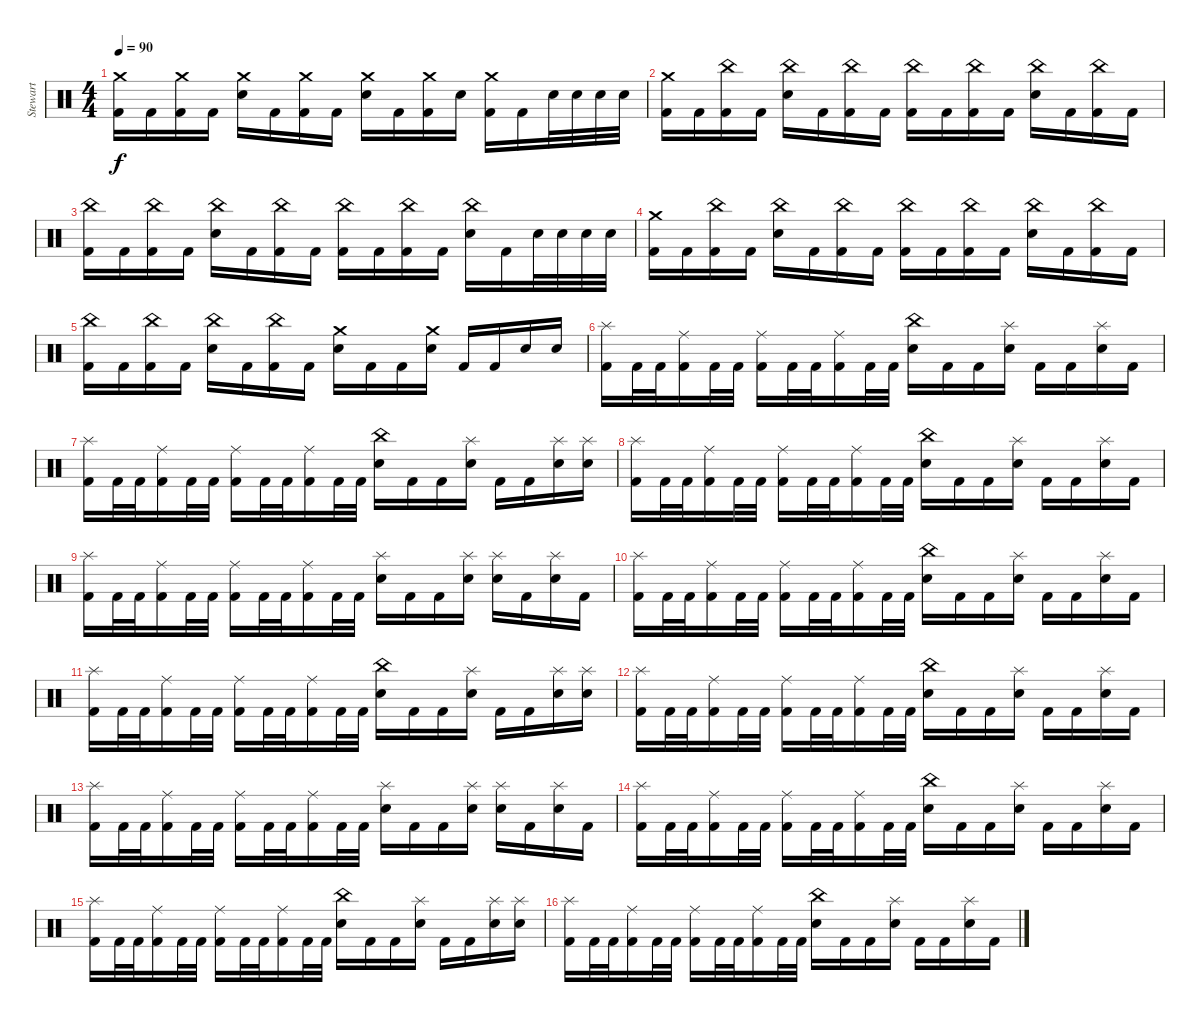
\track ("Stewart" "Stewart") {instrument percussion}
\staff {score}
\articulation defaults
\ts (4 4)
\tempo 90
\clef neutral
\ks c
("Crash medium (hit)" "Kick (hit) 2").16{dy f} "Kick (hit) 2".16 ("Crash medium (hit)" "Kick (hit) 2").16 "Kick (hit) 2".16 ("Crash medium (hit)" "Electric Snare (hit)").16 "Kick (hit) 2".16 ("Crash medium (hit)" "Kick (hit) 2").16 "Kick (hit) 2".16 ("Crash medium (hit)" "Electric Snare (hit)").16 "Kick (hit) 2".16 ("Crash medium (hit)" "Kick (hit) 2").16 "Electric Snare (hit)".16 ("Crash medium (hit)" "Kick (hit) 2").16 "Kick (hit) 2".16 "Electric Snare (hit)".32 "Electric Snare (hit)".32 "Electric Snare (hit)".32 "Electric Snare (hit)".32 |
("Crash medium (hit)" "Kick (hit) 2").16 "Kick (hit) 2".16 ("China (hit)" "Kick (hit) 2").16 "Kick (hit) 2".16 ("China (hit)" "Electric Snare (hit)").16 "Kick (hit) 2".16 ("China (hit)" "Kick (hit) 2").16 "Kick (hit) 2".16 ("China (hit)" "Kick (hit) 2").16 "Kick (hit) 2".16 ("China (hit)" "Kick (hit) 2").16 "Kick (hit) 2".16 ("China (hit)" "Electric Snare (hit)").16 "Kick (hit) 2".16 ("China (hit)" "Kick (hit) 2").16 "Kick (hit) 2".16 |
("China (hit)" "Kick (hit) 2").16 "Kick (hit) 2".16 ("China (hit)" "Kick (hit) 2").16 "Kick (hit) 2".16 ("China (hit)" "Electric Snare (hit)").16 "Kick (hit) 2".16 ("China (hit)" "Kick (hit) 2").16 "Kick (hit) 2".16 ("China (hit)" "Kick (hit) 2").16 "Kick (hit) 2".16 ("China (hit)" "Kick (hit) 2").16 "Kick (hit) 2".16 ("China (hit)" "Electric Snare (hit)").16 "Kick (hit) 2".16 "Electric Snare (hit)".32 "Electric Snare (hit)".32 "Electric Snare (hit)".32 "Electric Snare (hit)".32 |
("Crash medium (hit)" "Kick (hit) 2").16 "Kick (hit) 2".16 ("China (hit)" "Kick (hit) 2").16 "Kick (hit) 2".16 ("China (hit)" "Electric Snare (hit)").16 "Kick (hit) 2".16 ("China (hit)" "Kick (hit) 2").16 "Kick (hit) 2".16 ("China (hit)" "Kick (hit) 2").16 "Kick (hit) 2".16 ("China (hit)" "Kick (hit) 2").16 "Kick (hit) 2".16 ("China (hit)" "Electric Snare (hit)").16 "Kick (hit) 2".16 ("China (hit)" "Kick (hit) 2").16 "Kick (hit) 2".16 |
("China (hit)" "Kick (hit) 2").16 "Kick (hit) 2".16 ("China (hit)" "Kick (hit) 2").16 "Kick (hit) 2".16 ("China (hit)" "Electric Snare (hit)").16 "Kick (hit) 2".16 ("China (hit)" "Kick (hit) 2").16 "Kick (hit) 2".16 ("Crash medium (hit)" "Electric Snare (hit)").16 "Kick (hit) 2".16 "Kick (hit) 2".16 ("Crash medium (hit)" "Electric Snare (hit)").16 "Kick (hit) 2".16 "Kick (hit) 2".16 "Electric Snare (hit)".16 "Electric Snare (hit)".16 |
("Splash (hit)" "Kick (hit) 2").16 "Kick (hit) 2".32 "Kick (hit) 2".32 ("Ride (middle)" "Kick (hit) 2").16 "Kick (hit) 2".32 "Kick (hit) 2".32 ("Ride (middle)" "Kick (hit) 2").16 "Kick (hit) 2".32 "Kick (hit) 2".32 ("Ride (middle)" "Kick (hit) 2").16 "Kick (hit) 2".32 "Kick (hit) 2".32 ("China (hit)" "Electric Snare (hit)").16 "Kick (hit) 2".16 "Kick (hit) 2".16 ("Splash (hit)" "Electric Snare (hit)").16 "Kick (hit) 2".16 "Kick (hit) 2".16 ("Splash (hit)" "Electric Snare (hit)").16 "Kick (hit) 2".16 |
("Splash (hit)" "Kick (hit) 2").16 "Kick (hit) 2".32 "Kick (hit) 2".32 ("Ride (middle)" "Kick (hit) 2").16 "Kick (hit) 2".32 "Kick (hit) 2".32 ("Ride (middle)" "Kick (hit) 2").16 "Kick (hit) 2".32 "Kick (hit) 2".32 ("Ride (middle)" "Kick (hit) 2").16 "Kick (hit) 2".32 "Kick (hit) 2".32 ("China (hit)" "Electric Snare (hit)").16 "Kick (hit) 2".16 "Kick (hit) 2".16 ("Splash (hit)" "Electric Snare (hit)").16 "Kick (hit) 2".16 "Kick (hit) 2".16 ("Splash (hit)" "Electric Snare (hit)").16 ("Splash (hit)" "Electric Snare (hit)").16 |
("Splash (hit)" "Kick (hit) 2").16 "Kick (hit) 2".32 "Kick (hit) 2".32 ("Ride (middle)" "Kick (hit) 2").16 "Kick (hit) 2".32 "Kick (hit) 2".32 ("Ride (middle)" "Kick (hit) 2").16 "Kick (hit) 2".32 "Kick (hit) 2".32 ("Ride (middle)" "Kick (hit) 2").16 "Kick (hit) 2".32 "Kick (hit) 2".32 ("China (hit)" "Electric Snare (hit)").16 "Kick (hit) 2".16 "Kick (hit) 2".16 ("Splash (hit)" "Electric Snare (hit)").16 "Kick (hit) 2".16 "Kick (hit) 2".16 ("Splash (hit)" "Electric Snare (hit)").16 "Kick (hit) 2".16 |
("Splash (hit)" "Kick (hit) 2").16 "Kick (hit) 2".32 "Kick (hit) 2".32 ("Ride (middle)" "Kick (hit) 2").16 "Kick (hit) 2".32 "Kick (hit) 2".32 ("Ride (middle)" "Kick (hit) 2").16 "Kick (hit) 2".32 "Kick (hit) 2".32 ("Ride (middle)" "Kick (hit) 2").16 "Kick (hit) 2".32 "Kick (hit) 2".32 ("Splash (hit)" "Electric Snare (hit)").16 "Kick (hit) 2".16 "Kick (hit) 2".16 ("Splash (hit)" "Electric Snare (hit)").16 ("Splash (hit)" "Electric Snare (hit)").16 "Kick (hit) 2".16 ("Splash (hit)" "Electric Snare (hit)").16 "Kick (hit) 2".16 |
("Splash (hit)" "Kick (hit) 2").16 "Kick (hit) 2".32 "Kick (hit) 2".32 ("Ride (middle)" "Kick (hit) 2").16 "Kick (hit) 2".32 "Kick (hit) 2".32 ("Ride (middle)" "Kick (hit) 2").16 "Kick (hit) 2".32 "Kick (hit) 2".32 ("Ride (middle)" "Kick (hit) 2").16 "Kick (hit) 2".32 "Kick (hit) 2".32 ("China (hit)" "Electric Snare (hit)").16 "Kick (hit) 2".16 "Kick (hit) 2".16 ("Splash (hit)" "Electric Snare (hit)").16 "Kick (hit) 2".16 "Kick (hit) 2".16 ("Splash (hit)" "Electric Snare (hit)").16 "Kick (hit) 2".16 |
("Splash (hit)" "Kick (hit) 2").16 "Kick (hit) 2".32 "Kick (hit) 2".32 ("Ride (middle)" "Kick (hit) 2").16 "Kick (hit) 2".32 "Kick (hit) 2".32 ("Ride (middle)" "Kick (hit) 2").16 "Kick (hit) 2".32 "Kick (hit) 2".32 ("Ride (middle)" "Kick (hit) 2").16 "Kick (hit) 2".32 "Kick (hit) 2".32 ("China (hit)" "Electric Snare (hit)").16 "Kick (hit) 2".16 "Kick (hit) 2".16 ("Splash (hit)" "Electric Snare (hit)").16 "Kick (hit) 2".16 "Kick (hit) 2".16 ("Splash (hit)" "Electric Snare (hit)").16 ("Splash (hit)" "Electric Snare (hit)").16 |
("Splash (hit)" "Kick (hit) 2").16 "Kick (hit) 2".32 "Kick (hit) 2".32 ("Ride (middle)" "Kick (hit) 2").16 "Kick (hit) 2".32 "Kick (hit) 2".32 ("Ride (middle)" "Kick (hit) 2").16 "Kick (hit) 2".32 "Kick (hit) 2".32 ("Ride (middle)" "Kick (hit) 2").16 "Kick (hit) 2".32 "Kick (hit) 2".32 ("China (hit)" "Electric Snare (hit)").16 "Kick (hit) 2".16 "Kick (hit) 2".16 ("Splash (hit)" "Electric Snare (hit)").16 "Kick (hit) 2".16 "Kick (hit) 2".16 ("Splash (hit)" "Electric Snare (hit)").16 "Kick (hit) 2".16 |
("Splash (hit)" "Kick (hit) 2").16 "Kick (hit) 2".32 "Kick (hit) 2".32 ("Ride (middle)" "Kick (hit) 2").16 "Kick (hit) 2".32 "Kick (hit) 2".32 ("Ride (middle)" "Kick (hit) 2").16 "Kick (hit) 2".32 "Kick (hit) 2".32 ("Ride (middle)" "Kick (hit) 2").16 "Kick (hit) 2".32 "Kick (hit) 2".32 ("Splash (hit)" "Electric Snare (hit)").16 "Kick (hit) 2".16 "Kick (hit) 2".16 ("Splash (hit)" "Electric Snare (hit)").16 ("Splash (hit)" "Electric Snare (hit)").16 "Kick (hit) 2".16 ("Splash (hit)" "Electric Snare (hit)").16 "Kick (hit) 2".16 |
("Splash (hit)" "Kick (hit) 2").16 "Kick (hit) 2".32 "Kick (hit) 2".32 ("Ride (middle)" "Kick (hit) 2").16 "Kick (hit) 2".32 "Kick (hit) 2".32 ("Ride (middle)" "Kick (hit) 2").16 "Kick (hit) 2".32 "Kick (hit) 2".32 ("Ride (middle)" "Kick (hit) 2").16 "Kick (hit) 2".32 "Kick (hit) 2".32 ("China (hit)" "Electric Snare (hit)").16 "Kick (hit) 2".16 "Kick (hit) 2".16 ("Splash (hit)" "Electric Snare (hit)").16 "Kick (hit) 2".16 "Kick (hit) 2".16 ("Splash (hit)" "Electric Snare (hit)").16 "Kick (hit) 2".16 |
("Splash (hit)" "Kick (hit) 2").16 "Kick (hit) 2".32 "Kick (hit) 2".32 ("Ride (middle)" "Kick (hit) 2").16 "Kick (hit) 2".32 "Kick (hit) 2".32 ("Ride (middle)" "Kick (hit) 2").16 "Kick (hit) 2".32 "Kick (hit) 2".32 ("Ride (middle)" "Kick (hit) 2").16 "Kick (hit) 2".32 "Kick (hit) 2".32 ("China (hit)" "Electric Snare (hit)").16 "Kick (hit) 2".16 "Kick (hit) 2".16 ("Splash (hit)" "Electric Snare (hit)").16 "Kick (hit) 2".16 "Kick (hit) 2".16 ("Splash (hit)" "Electric Snare (hit)").16 ("Splash (hit)" "Electric Snare (hit)").16 |
("Splash (hit)" "Kick (hit) 2").16 "Kick (hit) 2".32 "Kick (hit) 2".32 ("Ride (middle)" "Kick (hit) 2").16 "Kick (hit) 2".32 "Kick (hit) 2".32 ("Ride (middle)" "Kick (hit) 2").16 "Kick (hit) 2".32 "Kick (hit) 2".32 ("Ride (middle)" "Kick (hit) 2").16 "Kick (hit) 2".32 "Kick (hit) 2".32 ("China (hit)" "Electric Snare (hit)").16 "Kick (hit) 2".16 "Kick (hit) 2".16 ("Splash (hit)" "Electric Snare (hit)").16 "Kick (hit) 2".16 "Kick (hit) 2".16 ("Splash (hit)" "Electric Snare (hit)").16 "Kick (hit) 2".16
